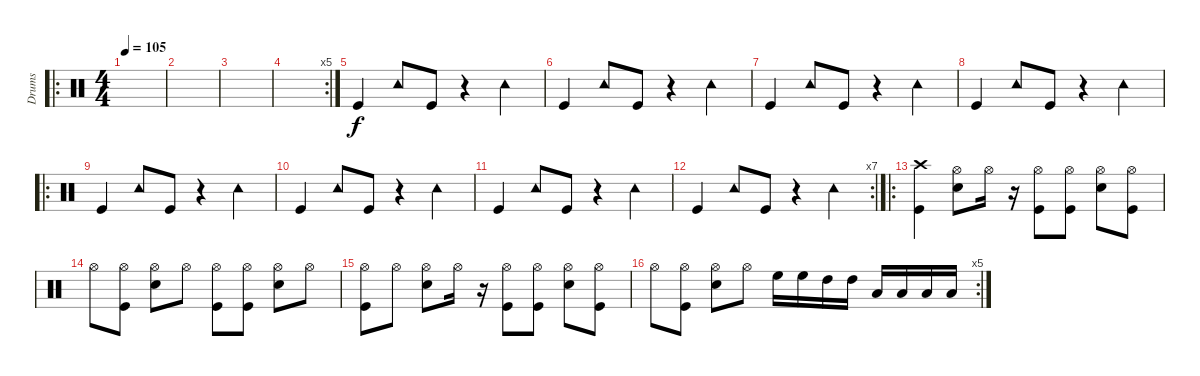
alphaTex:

\track ("Drums" "Drums") {instrument percussion}
\staff {score}
\articulation defaults
\ro
\ts (4 4)
\tempo 105
\clef neutral
\ks c
|
|
|
\rc 5
|
"Kick (hit)".4 "Tambourine (hit)".8 "Kick (hit)".8 r.4 "Tambourine (hit)".4 |
"Kick (hit)".4 "Tambourine (hit)".8 "Kick (hit)".8 r.4 "Tambourine (hit)".4 |
"Kick (hit)".4 "Tambourine (hit)".8 "Kick (hit)".8 r.4 "Tambourine (hit)".4 |
"Kick (hit)".4 "Tambourine (hit)".8 "Kick (hit)".8 r.4 "Tambourine (hit)".4 |
\ro "Kick (hit)".4 "Tambourine (hit)".8 "Kick (hit)".8
r.4 "Tambourine (hit)".4 |
"Kick (hit)".4 "Tambourine (hit)".8 "Kick (hit)".8 r.4 "Tambourine (hit)".4 |
"Kick (hit)".4 "Tambourine (hit)".8 "Kick (hit)".8 r.4 "Tambourine (hit)".4 |
\rc 7 "Kick (hit)".4 "Tambourine (hit)".8 "Kick (hit)".8
r.4 "Tambourine (hit)".4 |
\ro
("Crash high (hit)" "Kick (hit)").4 ("Hi-Hat (open)" "Snare (hit) 2").8 "Hi-Hat (open)".16 r.16 ("Hi-Hat (open)" "Kick (hit)").8 ("Hi-Hat (open)" "Kick (hit)").8 ("Hi-Hat (open)" "Snare (hit) 2").8 ("Hi-Hat (open)" "Kick (hit)").8 |
"Hi-Hat (open)".8 ("Hi-Hat (open)" "Kick (hit)").8 ("Hi-Hat (open)" "Snare (hit) 2").8 "Hi-Hat (open)".8 ("Hi-Hat (open)" "Kick (hit)").8 ("Hi-Hat (open)" "Kick (hit)").8 ("Hi-Hat (open)" "Snare (hit) 2").8 "Hi-Hat (open)".8 |
("Hi-Hat (open)" "Kick (hit)").8 "Hi-Hat (open)".8 ("Hi-Hat (open)" "Snare (hit) 2").8 "Hi-Hat (open)".16 r.16 ("Hi-Hat (open)" "Kick (hit)").8 ("Hi-Hat (open)" "Kick (hit)").8 ("Hi-Hat (open)" "Snare (hit) 2").8 ("Hi-Hat (open)" "Kick (hit)").8 |
\rc 5 "Hi-Hat (open)".8
("Hi-Hat (open)" "Kick (hit)").8 ("Hi-Hat (open)" "Snare (hit) 2").8 "Hi-Hat (open)".8 "High Floor Tom (hit)".16 "High Floor Tom (hit)".16 "High Tom (hit)".16 "High Tom (hit)".16 "Low Tom (hit)".16 "Low Tom (hit)".16 "Low Floor Tom (hit)".16 "Low Floor Tom (hit)".16
